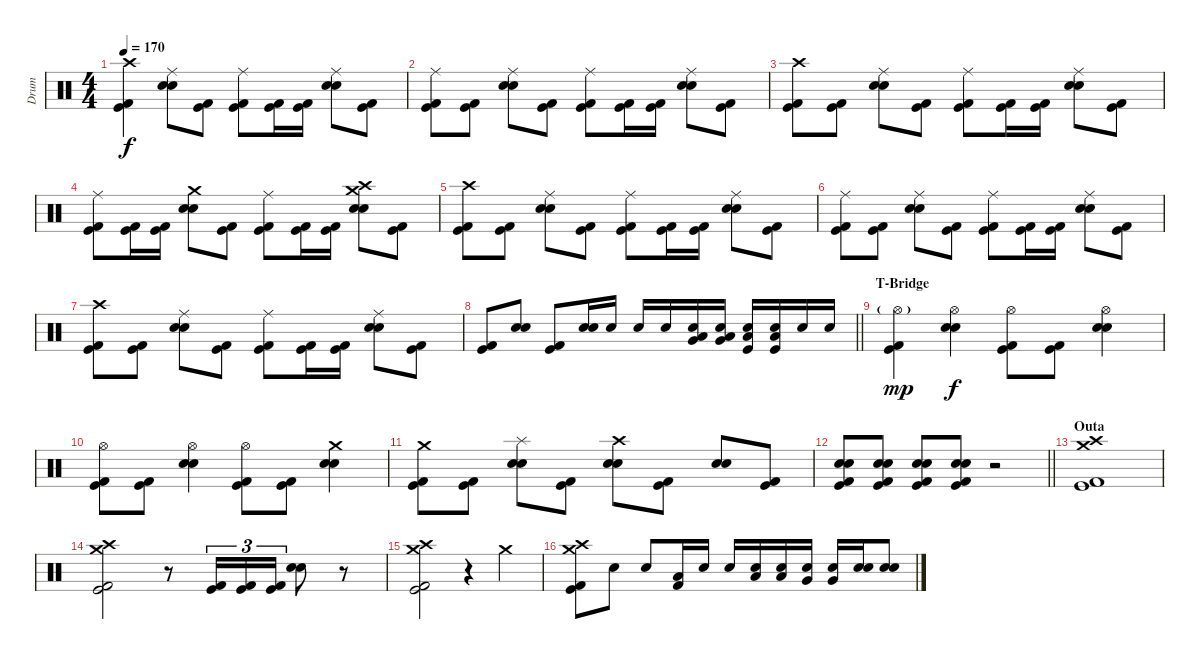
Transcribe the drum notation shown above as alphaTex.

\track ("Drum" "Drum") {instrument percussion}
\staff
\articulation defaults
\ts (4 4)
\tempo 170
\clef neutral
\ks c
("Crash high (hit)" "Kick (hit) 2" "Kick (hit)").4{dy f} ("Ride (middle)" "Electric Snare (hit)" "Snare (hit) 2").8 ("Kick (hit) 2" "Kick (hit)").8 ("Ride (middle)" "Kick (hit) 2" "Kick (hit)").8 ("Kick (hit) 2" "Kick (hit)").16 ("Kick (hit) 2" "Kick (hit)").16 ("Ride (middle)" "Electric Snare (hit)" "Snare (hit) 2").8 ("Kick (hit) 2" "Kick (hit)").8 |
("Ride (middle)" "Kick (hit) 2" "Kick (hit)").8 ("Kick (hit) 2" "Kick (hit)").8 ("Ride (middle)" "Electric Snare (hit)" "Snare (hit) 2").8 ("Kick (hit) 2" "Kick (hit)").8 ("Ride (middle)" "Kick (hit) 2" "Kick (hit)").8 ("Kick (hit) 2" "Kick (hit)").16 ("Kick (hit) 2" "Kick (hit)").16 ("Ride (middle)" "Electric Snare (hit)" "Snare (hit) 2").8 ("Kick (hit) 2" "Kick (hit)").8 |
("Crash high (hit)" "Kick (hit) 2" "Kick (hit)").8 ("Kick (hit) 2" "Kick (hit)").8 ("Ride (middle)" "Electric Snare (hit)" "Snare (hit) 2").8 ("Kick (hit) 2" "Kick (hit)").8 ("Ride (middle)" "Kick (hit) 2" "Kick (hit)").8 ("Kick (hit) 2" "Kick (hit)").16 ("Kick (hit) 2" "Kick (hit)").16 ("Ride (middle)" "Electric Snare (hit)" "Snare (hit) 2").8 ("Kick (hit) 2" "Kick (hit)").8 |
("Ride (middle)" "Kick (hit) 2" "Kick (hit)").8 ("Kick (hit) 2" "Kick (hit)").16 ("Kick (hit) 2" "Kick (hit)").16 ("Crash medium (hit)" "Electric Snare (hit)" "Snare (hit) 2").8 ("Kick (hit) 2" "Kick (hit)").8 ("Ride (middle)" "Kick (hit) 2" "Kick (hit)").8 ("Kick (hit) 2" "Kick (hit)").16 ("Kick (hit) 2" "Kick (hit)").16 ("Crash high (hit)" "Crash medium (hit)" "Electric Snare (hit)" "Snare (hit) 2").8 ("Kick (hit) 2" "Kick (hit)").8 |
("Crash high (hit)" "Kick (hit) 2" "Kick (hit)").8 ("Kick (hit) 2" "Kick (hit)").8 ("Ride (middle)" "Electric Snare (hit)" "Snare (hit) 2").8 ("Kick (hit) 2" "Kick (hit)").8 ("Ride (middle)" "Kick (hit) 2" "Kick (hit)").8 ("Kick (hit) 2" "Kick (hit)").16 ("Kick (hit) 2" "Kick (hit)").16 ("Ride (middle)" "Electric Snare (hit)" "Snare (hit) 2").8 ("Kick (hit) 2" "Kick (hit)").8 |
("Ride (middle)" "Kick (hit) 2" "Kick (hit)").8 ("Kick (hit) 2" "Kick (hit)").8 ("Ride (middle)" "Electric Snare (hit)" "Snare (hit) 2").8 ("Kick (hit) 2" "Kick (hit)").8 ("Ride (middle)" "Kick (hit) 2" "Kick (hit)").8 ("Kick (hit) 2" "Kick (hit)").16 ("Kick (hit) 2" "Kick (hit)").16 ("Ride (middle)" "Electric Snare (hit)" "Snare (hit) 2").8 ("Kick (hit) 2" "Kick (hit)").8 |
("Crash high (hit)" "Kick (hit) 2" "Kick (hit)").8 ("Kick (hit) 2" "Kick (hit)").8 ("Ride (middle)" "Electric Snare (hit)" "Snare (hit) 2").8 ("Kick (hit) 2" "Kick (hit)").8 ("Ride (middle)" "Kick (hit) 2" "Kick (hit)").8 ("Kick (hit) 2" "Kick (hit)").16 ("Kick (hit) 2" "Kick (hit)").16 ("Ride (middle)" "Electric Snare (hit)" "Snare (hit) 2").8 ("Kick (hit) 2" "Kick (hit)").8 |
\barLineRight lightlight
("Kick (hit) 2" "Kick (hit)").8 ("Electric Snare (hit)" "Snare (hit) 2").8 ("Kick (hit) 2" "Kick (hit)").8 ("Electric Snare (hit)" "Snare (hit) 2").16 "Electric Snare (hit)".16 "Electric Snare (hit)".16 "Electric Snare (hit)".16 ("Electric Snare (hit)" "Low Floor Tom (hit)" "Very Low Tom (hit)").16 ("Electric Snare (hit)" "Low Floor Tom (hit)" "Very Low Tom (hit)").16 ("Electric Snare (hit)" "Low Tom (hit)" "Kick (hit)").16 ("Electric Snare (hit)" "Low Tom (hit)" "Kick (hit)").16 "Electric Snare (hit)".16 "Electric Snare (hit)".16 |
\section ("" "T-Bridge")
("Hi-Hat (open)"{g} "Kick (hit) 2" "Kick (hit)").4{dy mp} ("Hi-Hat (open)" "Electric Snare (hit)" "Snare (hit) 2").4{dy f} ("Hi-Hat (open)" "Kick (hit) 2" "Kick (hit)").8 ("Kick (hit) 2" "Kick (hit)").8 ("Hi-Hat (open)" "Electric Snare (hit)" "Snare (hit) 2").4 |
("Hi-Hat (open)" "Kick (hit) 2" "Kick (hit)").8 ("Kick (hit) 2" "Kick (hit)").8 ("Hi-Hat (open)" "Electric Snare (hit)" "Snare (hit) 2").4 ("Hi-Hat (open)" "Kick (hit) 2" "Kick (hit)").8 ("Kick (hit) 2" "Kick (hit)").8 ("Crash medium (hit)" "Electric Snare (hit)" "Snare (hit) 2").4 |
("Crash medium (hit)" "Kick (hit) 2" "Kick (hit)").8 ("Kick (hit) 2" "Kick (hit)").8 ("Splash (hit)" "Electric Snare (hit)" "Snare (hit) 2").8 ("Kick (hit) 2" "Kick (hit)").8 ("Crash high (hit)" "Electric Snare (hit)" "Snare (hit) 2").8 ("Kick (hit) 2" "Kick (hit)").8 ("Electric Snare (hit)" "Snare (hit) 2").8 ("Kick (hit) 2" "Kick (hit)").8 |
\barLineRight lightlight
("Electric Snare (hit)" "Snare (hit) 2" "Kick (hit) 2" "Kick (hit)").8 ("Electric Snare (hit)" "Snare (hit) 2" "Kick (hit) 2" "Kick (hit)").8 ("Electric Snare (hit)" "Snare (hit) 2" "Kick (hit) 2" "Kick (hit)").8 ("Electric Snare (hit)" "Snare (hit) 2" "Kick (hit) 2" "Kick (hit)").8 r.2 |
\section ("" "Outa")
("Crash high (hit)" "Crash medium (hit)" "Kick (hit) 2" "Kick (hit)").1 |
("Crash high (hit)" "Crash medium (hit)" "Kick (hit) 2" "Kick (hit)").2 r.8 ("Kick (hit) 2" "Kick (hit)").16{tu (3 2)} ("Kick (hit) 2" "Kick (hit)").16{tu (3 2)} ("Kick (hit) 2" "Kick (hit)").16{tu (3 2)} ("Electric Snare (hit)" "Snare (hit) 2").8 r.8 |
("Crash high (hit)" "Crash medium (hit)" "Kick (hit) 2" "Kick (hit)").2 r.4 "Crash medium (hit)".4 |
("Crash high (hit)" "Crash medium (hit)" "Kick (hit) 2" "Kick (hit)").8 "Electric Snare (hit)".8 "Electric Snare (hit)".8 ("Low Floor Tom (hit)" "Kick (hit) 2").16 "Electric Snare (hit)".16 "Electric Snare (hit)".16 ("Electric Snare (hit)" "Low Floor Tom (hit)").16 ("Electric Snare (hit)" "Low Floor Tom (hit)").16 ("Electric Snare (hit)" "Very Low Tom (hit)").16 ("Electric Snare (hit)" "Very Low Tom (hit)").16 ("Electric Snare (hit)" "Snare (hit) 2").16 ("Electric Snare (hit)" "Snare (hit) 2").8
